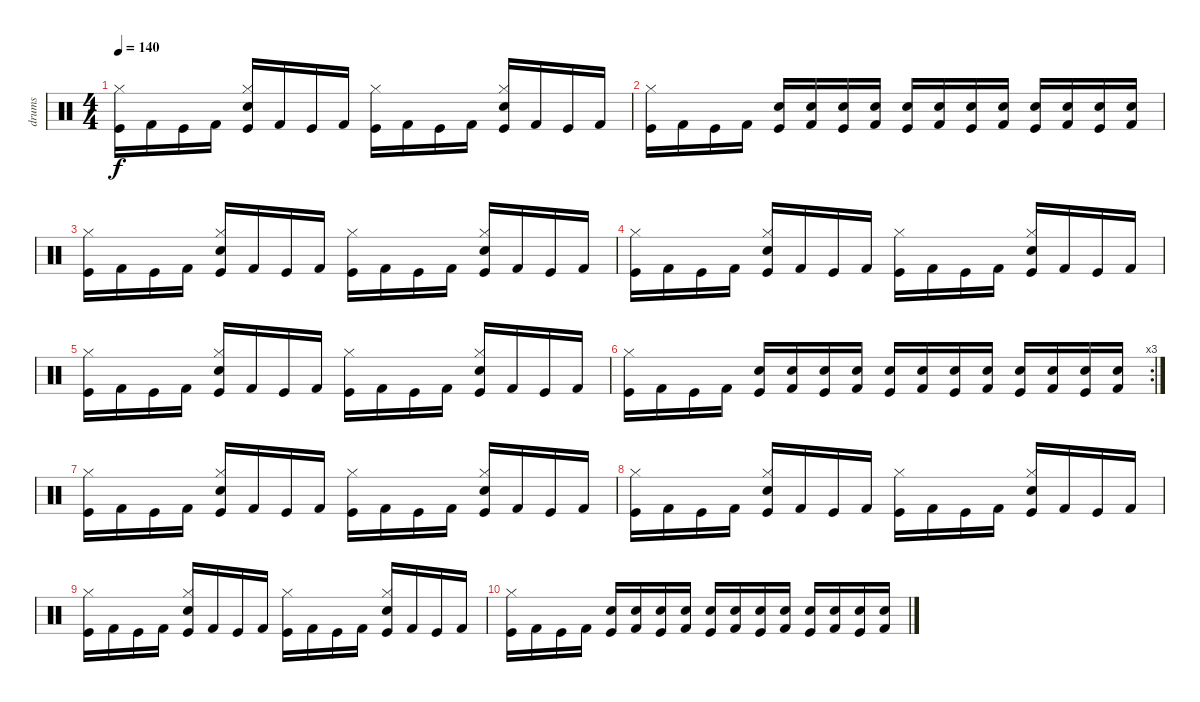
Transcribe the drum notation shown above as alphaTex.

\track ("drums" "drums") {instrument percussion}
\staff {score}
\articulation defaults
\ts (4 4)
\tempo 140
\clef neutral
\ks c
("Kick (hit)" "Hi-Hat (closed)").16{dy f} "Kick (hit) 2".16 "Kick (hit)".16 "Kick (hit) 2".16 ("Kick (hit)" "Snare (hit) 2" "Hi-Hat (closed)").16 "Kick (hit) 2".16 "Kick (hit)".16 "Kick (hit) 2".16 ("Kick (hit)" "Hi-Hat (closed)").16 "Kick (hit) 2".16 "Kick (hit)".16 "Kick (hit) 2".16 ("Kick (hit)" "Snare (hit) 2" "Hi-Hat (closed)").16 "Kick (hit) 2".16 "Kick (hit)".16 "Kick (hit) 2".16 |
("Kick (hit)" "Hi-Hat (closed)").16 "Kick (hit) 2".16 "Kick (hit)".16 "Kick (hit) 2".16 ("Kick (hit)" "Snare (hit) 2").16 ("Kick (hit) 2" "Snare (hit) 2").16 ("Kick (hit)" "Snare (hit) 2").16 ("Kick (hit) 2" "Snare (hit) 2").16 ("Kick (hit)" "Snare (hit) 2").16 ("Kick (hit) 2" "Snare (hit) 2").16 ("Kick (hit)" "Snare (hit) 2").16 ("Kick (hit) 2" "Snare (hit) 2").16 ("Kick (hit)" "Snare (hit) 2").16 ("Kick (hit) 2" "Snare (hit) 2").16 ("Kick (hit)" "Snare (hit) 2").16 ("Kick (hit) 2" "Snare (hit) 2").16 |
("Kick (hit)" "Hi-Hat (closed)").16 "Kick (hit) 2".16 "Kick (hit)".16 "Kick (hit) 2".16 ("Kick (hit)" "Snare (hit) 2" "Hi-Hat (closed)").16 "Kick (hit) 2".16 "Kick (hit)".16 "Kick (hit) 2".16 ("Kick (hit)" "Hi-Hat (closed)").16 "Kick (hit) 2".16 "Kick (hit)".16 "Kick (hit) 2".16 ("Kick (hit)" "Snare (hit) 2" "Hi-Hat (closed)").16 "Kick (hit) 2".16 "Kick (hit)".16 "Kick (hit) 2".16 |
("Kick (hit)" "Hi-Hat (closed)").16 "Kick (hit) 2".16 "Kick (hit)".16 "Kick (hit) 2".16 ("Kick (hit)" "Snare (hit) 2" "Hi-Hat (closed)").16 "Kick (hit) 2".16 "Kick (hit)".16 "Kick (hit) 2".16 ("Kick (hit)" "Hi-Hat (closed)").16 "Kick (hit) 2".16 "Kick (hit)".16 "Kick (hit) 2".16 ("Kick (hit)" "Snare (hit) 2" "Hi-Hat (closed)").16 "Kick (hit) 2".16 "Kick (hit)".16 "Kick (hit) 2".16 |
("Kick (hit)" "Hi-Hat (closed)").16 "Kick (hit) 2".16 "Kick (hit)".16 "Kick (hit) 2".16 ("Kick (hit)" "Snare (hit) 2" "Hi-Hat (closed)").16 "Kick (hit) 2".16 "Kick (hit)".16 "Kick (hit) 2".16 ("Kick (hit)" "Hi-Hat (closed)").16 "Kick (hit) 2".16 "Kick (hit)".16 "Kick (hit) 2".16 ("Kick (hit)" "Snare (hit) 2" "Hi-Hat (closed)").16 "Kick (hit) 2".16 "Kick (hit)".16 "Kick (hit) 2".16 |
\rc 3
("Kick (hit)" "Hi-Hat (closed)").16 "Kick (hit) 2".16 "Kick (hit)".16 "Kick (hit) 2".16 ("Kick (hit)" "Snare (hit) 2").16 ("Kick (hit) 2" "Snare (hit) 2").16 ("Kick (hit)" "Snare (hit) 2").16 ("Kick (hit) 2" "Snare (hit) 2").16 ("Kick (hit)" "Snare (hit) 2").16 ("Kick (hit) 2" "Snare (hit) 2").16 ("Kick (hit)" "Snare (hit) 2").16 ("Kick (hit) 2" "Snare (hit) 2").16 ("Kick (hit)" "Snare (hit) 2").16 ("Kick (hit) 2" "Snare (hit) 2").16 ("Kick (hit)" "Snare (hit) 2").16 ("Kick (hit) 2" "Snare (hit) 2").16 |
("Kick (hit)" "Hi-Hat (closed)").16{volume 0} "Kick (hit) 2".16 "Kick (hit)".16 "Kick (hit) 2".16 ("Kick (hit)" "Snare (hit) 2" "Hi-Hat (closed)").16 "Kick (hit) 2".16 "Kick (hit)".16 "Kick (hit) 2".16 ("Kick (hit)" "Hi-Hat (closed)").16 "Kick (hit) 2".16 "Kick (hit)".16 "Kick (hit) 2".16 ("Kick (hit)" "Snare (hit) 2" "Hi-Hat (closed)").16 "Kick (hit) 2".16 "Kick (hit)".16 "Kick (hit) 2".16 |
("Kick (hit)" "Hi-Hat (closed)").16 "Kick (hit) 2".16 "Kick (hit)".16 "Kick (hit) 2".16 ("Kick (hit)" "Snare (hit) 2" "Hi-Hat (closed)").16 "Kick (hit) 2".16 "Kick (hit)".16 "Kick (hit) 2".16 ("Kick (hit)" "Hi-Hat (closed)").16 "Kick (hit) 2".16 "Kick (hit)".16 "Kick (hit) 2".16 ("Kick (hit)" "Snare (hit) 2" "Hi-Hat (closed)").16 "Kick (hit) 2".16 "Kick (hit)".16 "Kick (hit) 2".16 |
("Kick (hit)" "Hi-Hat (closed)").16 "Kick (hit) 2".16 "Kick (hit)".16 "Kick (hit) 2".16 ("Kick (hit)" "Snare (hit) 2" "Hi-Hat (closed)").16 "Kick (hit) 2".16 "Kick (hit)".16 "Kick (hit) 2".16 ("Kick (hit)" "Hi-Hat (closed)").16 "Kick (hit) 2".16 "Kick (hit)".16 "Kick (hit) 2".16 ("Kick (hit)" "Snare (hit) 2" "Hi-Hat (closed)").16 "Kick (hit) 2".16 "Kick (hit)".16 "Kick (hit) 2".16 |
("Kick (hit)" "Hi-Hat (closed)").16 "Kick (hit) 2".16 "Kick (hit)".16 "Kick (hit) 2".16 ("Kick (hit)" "Snare (hit) 2").16 ("Kick (hit) 2" "Snare (hit) 2").16 ("Kick (hit)" "Snare (hit) 2").16 ("Kick (hit) 2" "Snare (hit) 2").16 ("Kick (hit)" "Snare (hit) 2").16 ("Kick (hit) 2" "Snare (hit) 2").16 ("Kick (hit)" "Snare (hit) 2").16 ("Kick (hit) 2" "Snare (hit) 2").16 ("Kick (hit)" "Snare (hit) 2").16 ("Kick (hit) 2" "Snare (hit) 2").16 ("Kick (hit)" "Snare (hit) 2").16 ("Kick (hit) 2" "Snare (hit) 2").16
